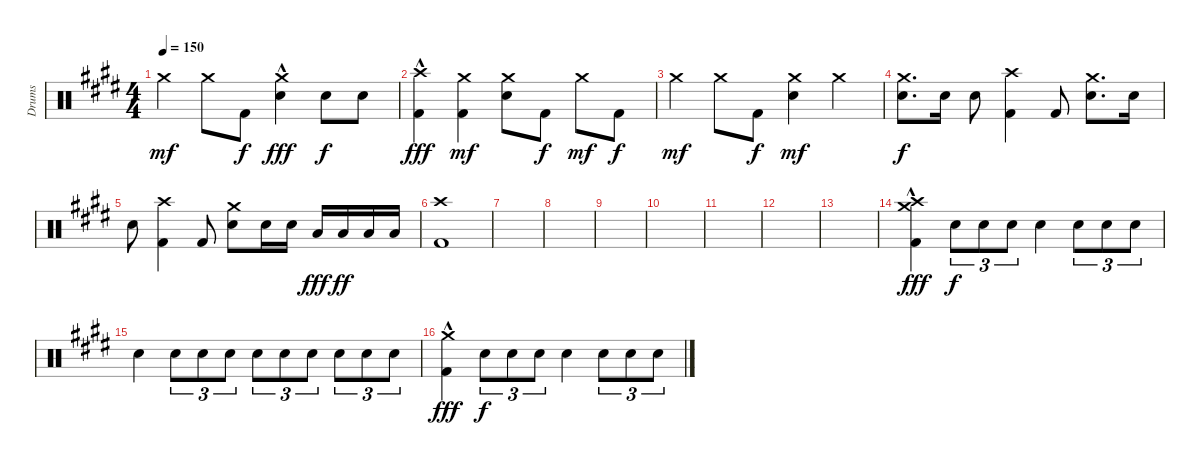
\track ("Drums" "Drums") {instrument percussion}
\staff {score}
\articulation defaults
\ts (4 4)
\tempo 150
\clef neutral
\ks e "Crash medium (hit)".4{dy mf} "Crash medium (hit)".8 "Kick (hit) 2".8{dy f}
("Crash medium (hit)"{hac} "Electric Snare (hit)").4{dy fff} "Electric Snare (hit)".8{dy f} "Electric Snare (hit)".8 |
("Crash high (hit)"{hac} "Kick (hit) 2").4{dy fff} ("Crash medium (hit)" "Kick (hit) 2").4{dy mf} ("Crash medium (hit)" "Electric Snare (hit)").8 "Kick (hit) 2".8{dy f} "Crash medium (hit)".8{dy mf} "Kick (hit) 2".8{dy f} |
"Crash medium (hit)".4{dy mf} "Crash medium (hit)".8 "Kick (hit) 2".8{dy f} ("Crash medium (hit)" "Electric Snare (hit)").4{dy mf} "Crash medium (hit)".4 |
("Crash medium (hit)" "Electric Snare (hit)").8{d dy f} "Electric Snare (hit)".16 "Electric Snare (hit)".8 ("Crash high (hit)" "Kick (hit) 2").4 "Kick (hit) 2".8 ("Crash medium (hit)" "Electric Snare (hit)").8{d} "Electric Snare (hit)".16 |
"Electric Snare (hit)".8 ("Crash high (hit)" "Kick (hit) 2").4 "Kick (hit) 2".8 ("Crash medium (hit)" "Electric Snare (hit)").8 "Electric Snare (hit)".16 "Electric Snare (hit)".16 "Low Tom (hit)".16{dy fff} "Low Tom (hit)".16{dy ff} "Low Floor Tom (hit)".16 "Low Floor Tom (hit)".16 |
("Crash high (hit)" "Kick (hit) 2").1 |
|
|
|
|
|
|
|
("Crash medium (hit)"{hac} "Crash high (hit)"{hac} "Kick (hit) 2").4{dy fff} "Electric Snare (hit)".8{tu (3 2) dy f} "Electric Snare (hit)".8{tu (3 2)} "Electric Snare (hit)".8{tu (3 2)} "Electric Snare (hit)".4 "Electric Snare (hit)".8{tu (3 2)} "Electric Snare (hit)".8{tu (3 2)} "Electric Snare (hit)".8{tu (3 2)} |
"Electric Snare (hit)".4 "Electric Snare (hit)".8{tu (3 2)} "Electric Snare (hit)".8{tu (3 2)} "Electric Snare (hit)".8{tu (3 2)} "Electric Snare (hit)".8{tu (3 2)} "Electric Snare (hit)".8{tu (3 2)} "Electric Snare (hit)".8{tu (3 2)} "Electric Snare (hit)".8{tu (3 2)} "Electric Snare (hit)".8{tu (3 2)} "Electric Snare (hit)".8{tu (3 2)} |
("Crash medium (hit)"{hac} "Kick (hit) 2").4{dy fff} "Electric Snare (hit)".8{tu (3 2) dy f} "Electric Snare (hit)".8{tu (3 2)} "Electric Snare (hit)".8{tu (3 2)} "Electric Snare (hit)".4 "Electric Snare (hit)".8{tu (3 2)} "Electric Snare (hit)".8{tu (3 2)} "Electric Snare (hit)".8{tu (3 2)}
